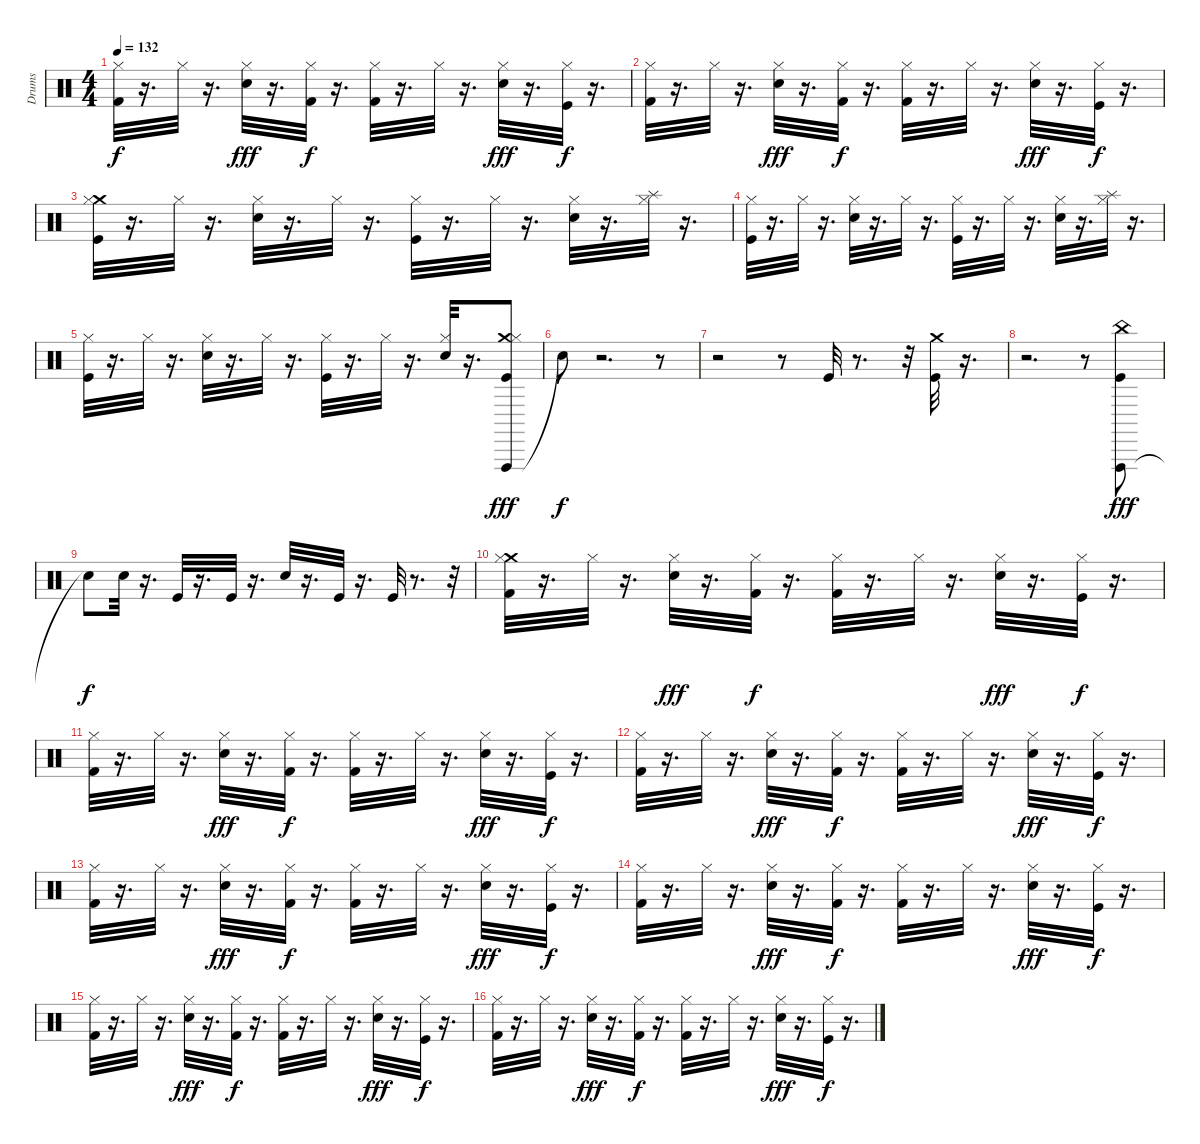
\track ("Drums" "Drums") {instrument percussion}
\staff {score}
\articulation defaults
\ts (4 4)
\tempo 132
\clef neutral
\ks c
("Hi-Hat (closed)" "Kick (hit) 2").32{dy f} r.16{d} "Hi-Hat (closed)".32 r.16{d} ("Hi-Hat (closed)" "Hand Clap (hit)").32{dy fff} r.16{d} ("Hi-Hat (closed)" "Kick (hit) 2").32{dy f} r.16{d} ("Hi-Hat (closed)" "Kick (hit) 2").32 r.16{d} "Hi-Hat (closed)".32 r.16{d} ("Hi-Hat (closed)" "Hand Clap (hit)").32{dy fff} r.16{d} ("Hi-Hat (closed)" "Kick (hit)").32{dy f} r.16{d} |
("Hi-Hat (closed)" "Kick (hit) 2").32 r.16{d} "Hi-Hat (closed)".32 r.16{d} ("Hi-Hat (closed)" "Hand Clap (hit)").32{dy fff} r.16{d} ("Hi-Hat (closed)" "Kick (hit) 2").32{dy f} r.16{d} ("Hi-Hat (closed)" "Kick (hit) 2").32 r.16{d} "Hi-Hat (closed)".32 r.16{d} ("Hi-Hat (closed)" "Hand Clap (hit)").32{dy fff} r.16{d} ("Hi-Hat (closed)" "Kick (hit)").32{dy f} r.16{d} |
("Crash medium (hit)" "Hi-Hat (closed)" "Kick (hit)").32 r.16{d} "Hi-Hat (closed)".32 r.16{d} ("Hi-Hat (closed)" "Snare (hit) 2").32 r.16{d} "Hi-Hat (closed)".32 r.16{d} ("Hi-Hat (closed)" "Kick (hit)").32 r.16{d} "Hi-Hat (closed)".32 r.16{d} ("Hi-Hat (closed)" "Snare (hit) 2").32 r.16{d} ("Splash (hit)" "Hi-Hat (closed)").32 r.16{d} |
("Hi-Hat (closed)" "Kick (hit)").32 r.16{d} "Hi-Hat (closed)".32 r.16{d} ("Hi-Hat (closed)" "Snare (hit) 2").32 r.16{d} "Hi-Hat (closed)".32 r.16{d} ("Hi-Hat (closed)" "Kick (hit)").32 r.16{d} "Hi-Hat (closed)".32 r.16{d} ("Hi-Hat (closed)" "Snare (hit) 2").32 r.16{d} ("Splash (hit)" "Hi-Hat (closed)").32 r.16{d} |
("Hi-Hat (closed)" "Kick (hit)").32 r.16{d} "Hi-Hat (closed)".32 r.16{d} ("Hi-Hat (closed)" "Snare (hit) 2").32 r.16{d} "Hi-Hat (closed)".32 r.16{d} ("Hi-Hat (closed)" "Kick (hit)").32 r.16{d} "Hi-Hat (closed)".32 r.16{d} ("Hi-Hat (closed)" "Snare (hit) 2").32 r.16{d} ("Vibraslap (hit)" "Crash medium (hit)" "Hi-Hat (closed)" "Kick (hit)").8{dy fff} |
"Snare (hit)"{t}.8{dy f} r.2{d} r.8 |
r.2 r.8 "Kick (hit)".32 r.8{d} r.32 ("Crash medium (hit)" "Kick (hit)").32 r.16{d} |
r.2{d} r.8 ("Vibraslap (hit)" "China (hit)" "Kick (hit)").8{dy fff} |
"Snare (hit)"{t}.8{dy f} "Snare (hit) 2".32 r.16{d} "Kick (hit)".32 r.16{d} "Kick (hit)".32 r.16{d} "Snare (hit) 2".32 r.16{d} "Kick (hit)".32 r.16{d} "Kick (hit)".32 r.8{d} r.32 |
("Crash medium (hit)" "Hi-Hat (closed)" "Kick (hit) 2").32 r.16{d} "Hi-Hat (closed)".32 r.16{d} ("Hi-Hat (closed)" "Hand Clap (hit)").32{dy fff} r.16{d} ("Hi-Hat (closed)" "Kick (hit) 2").32{dy f} r.16{d} ("Hi-Hat (closed)" "Kick (hit) 2").32 r.16{d} "Hi-Hat (closed)".32 r.16{d} ("Hi-Hat (closed)" "Hand Clap (hit)").32{dy fff} r.16{d} ("Hi-Hat (closed)" "Kick (hit)").32{dy f} r.16{d} |
("Hi-Hat (closed)" "Kick (hit) 2").32 r.16{d} "Hi-Hat (closed)".32 r.16{d} ("Hi-Hat (closed)" "Hand Clap (hit)").32{dy fff} r.16{d} ("Hi-Hat (closed)" "Kick (hit) 2").32{dy f} r.16{d} ("Hi-Hat (closed)" "Kick (hit) 2").32 r.16{d} "Hi-Hat (closed)".32 r.16{d} ("Hi-Hat (closed)" "Hand Clap (hit)").32{dy fff} r.16{d} ("Hi-Hat (closed)" "Kick (hit)").32{dy f} r.16{d} |
("Hi-Hat (closed)" "Kick (hit) 2").32 r.16{d} "Hi-Hat (closed)".32 r.16{d} ("Hi-Hat (closed)" "Hand Clap (hit)").32{dy fff} r.16{d} ("Hi-Hat (closed)" "Kick (hit) 2").32{dy f} r.16{d} ("Hi-Hat (closed)" "Kick (hit) 2").32 r.16{d} "Hi-Hat (closed)".32 r.16{d} ("Hi-Hat (closed)" "Hand Clap (hit)").32{dy fff} r.16{d} ("Hi-Hat (closed)" "Kick (hit)").32{dy f} r.16{d} |
("Hi-Hat (closed)" "Kick (hit) 2").32 r.16{d} "Hi-Hat (closed)".32 r.16{d} ("Hi-Hat (closed)" "Hand Clap (hit)").32{dy fff} r.16{d} ("Hi-Hat (closed)" "Kick (hit) 2").32{dy f} r.16{d} ("Hi-Hat (closed)" "Kick (hit) 2").32 r.16{d} "Hi-Hat (closed)".32 r.16{d} ("Hi-Hat (closed)" "Hand Clap (hit)").32{dy fff} r.16{d} ("Hi-Hat (closed)" "Kick (hit)").32{dy f} r.16{d} |
("Hi-Hat (closed)" "Kick (hit) 2").32 r.16{d} "Hi-Hat (closed)".32 r.16{d} ("Hi-Hat (closed)" "Hand Clap (hit)").32{dy fff} r.16{d} ("Hi-Hat (closed)" "Kick (hit) 2").32{dy f} r.16{d} ("Hi-Hat (closed)" "Kick (hit) 2").32 r.16{d} "Hi-Hat (closed)".32 r.16{d} ("Hi-Hat (closed)" "Hand Clap (hit)").32{dy fff} r.16{d} ("Hi-Hat (closed)" "Kick (hit)").32{dy f} r.16{d} |
("Hi-Hat (closed)" "Kick (hit) 2").32 r.16{d} "Hi-Hat (closed)".32 r.16{d} ("Hi-Hat (closed)" "Hand Clap (hit)").32{dy fff} r.16{d} ("Hi-Hat (closed)" "Kick (hit) 2").32{dy f} r.16{d} ("Hi-Hat (closed)" "Kick (hit) 2").32 r.16{d} "Hi-Hat (closed)".32 r.16{d} ("Hi-Hat (closed)" "Hand Clap (hit)").32{dy fff} r.16{d} ("Hi-Hat (closed)" "Kick (hit)").32{dy f} r.16{d} |
("Hi-Hat (closed)" "Kick (hit) 2").32 r.16{d} "Hi-Hat (closed)".32 r.16{d} ("Hi-Hat (closed)" "Hand Clap (hit)").32{dy fff} r.16{d} ("Hi-Hat (closed)" "Kick (hit) 2").32{dy f} r.16{d} ("Hi-Hat (closed)" "Kick (hit) 2").32 r.16{d} "Hi-Hat (closed)".32 r.16{d} ("Hi-Hat (closed)" "Hand Clap (hit)").32{dy fff} r.16{d} ("Hi-Hat (closed)" "Kick (hit)").32{dy f} r.16{d}
